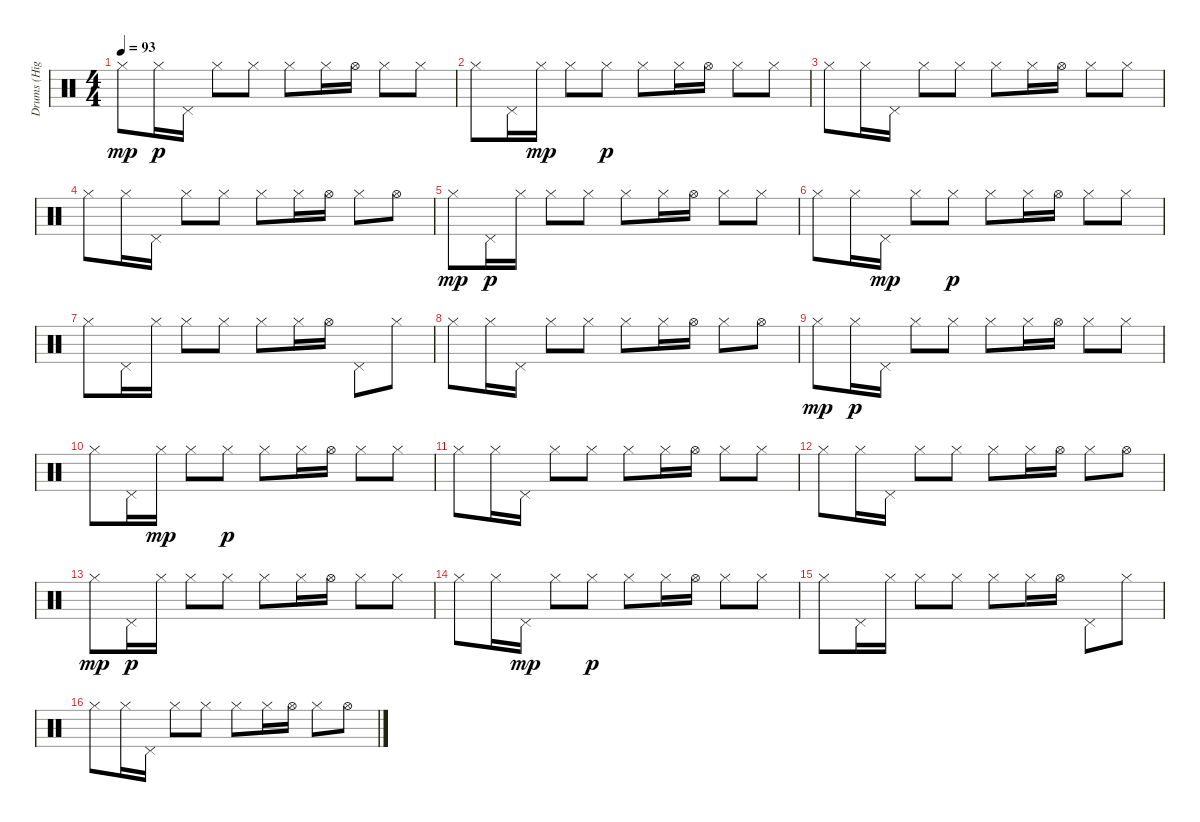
\track ("Drums (High Hat)" "Drums (Hig") {instrument percussion}
\staff {score}
\articulation defaults
\ts (4 4)
\tempo 93
\clef neutral
\ks c "Hi-Hat (closed)".8{dy mp} "Hi-Hat (closed)".16{dy p} "Pedal Hi-Hat (hit)".16 "Hi-Hat (closed)".8 "Hi-Hat (closed)".8 "Hi-Hat (closed)".8 "Hi-Hat (closed)".16 "Hi-Hat (open)".16 "Hi-Hat (closed)".8 "Hi-Hat (closed)".8
|
"Hi-Hat (closed)".8 "Pedal Hi-Hat (hit)".16 "Hi-Hat (closed)".16{dy mp} "Hi-Hat (closed)".8 "Hi-Hat (closed)".8{dy p} "Hi-Hat (closed)".8 "Hi-Hat (closed)".16 "Hi-Hat (open)".16 "Hi-Hat (closed)".8 "Hi-Hat (closed)".8 |
"Hi-Hat (closed)".8 "Hi-Hat (closed)".16 "Pedal Hi-Hat (hit)".16 "Hi-Hat (closed)".8 "Hi-Hat (closed)".8 "Hi-Hat (closed)".8 "Hi-Hat (closed)".16 "Hi-Hat (open)".16 "Hi-Hat (closed)".8 "Hi-Hat (closed)".8 |
"Hi-Hat (closed)".8 "Hi-Hat (closed)".16 "Pedal Hi-Hat (hit)".16 "Hi-Hat (closed)".8 "Hi-Hat (closed)".8 "Hi-Hat (closed)".8 "Hi-Hat (closed)".16 "Hi-Hat (open)".16 "Hi-Hat (closed)".8 "Hi-Hat (open)".8 |
"Hi-Hat (closed)".8{dy mp} "Pedal Hi-Hat (hit)".16{dy p} "Hi-Hat (closed)".16 "Hi-Hat (closed)".8 "Hi-Hat (closed)".8 "Hi-Hat (closed)".8 "Hi-Hat (closed)".16 "Hi-Hat (open)".16 "Hi-Hat (closed)".8 "Hi-Hat (closed)".8 |
"Hi-Hat (closed)".8 "Hi-Hat (closed)".16 "Pedal Hi-Hat (hit)".16{dy mp} "Hi-Hat (closed)".8 "Hi-Hat (closed)".8{dy p} "Hi-Hat (closed)".8 "Hi-Hat (closed)".16 "Hi-Hat (open)".16 "Hi-Hat (closed)".8 "Hi-Hat (closed)".8 |
"Hi-Hat (closed)".8 "Pedal Hi-Hat (hit)".16 "Hi-Hat (closed)".16 "Hi-Hat (closed)".8 "Hi-Hat (closed)".8 "Hi-Hat (closed)".8 "Hi-Hat (closed)".16 "Hi-Hat (open)".16 "Pedal Hi-Hat (hit)".8 "Hi-Hat (closed)".8 |
"Hi-Hat (closed)".8 "Hi-Hat (closed)".16 "Pedal Hi-Hat (hit)".16 "Hi-Hat (closed)".8 "Hi-Hat (closed)".8 "Hi-Hat (closed)".8 "Hi-Hat (closed)".16 "Hi-Hat (open)".16 "Hi-Hat (closed)".8 "Hi-Hat (open)".8 |
"Hi-Hat (closed)".8{dy mp} "Hi-Hat (closed)".16{dy p} "Pedal Hi-Hat (hit)".16 "Hi-Hat (closed)".8 "Hi-Hat (closed)".8 "Hi-Hat (closed)".8 "Hi-Hat (closed)".16 "Hi-Hat (open)".16 "Hi-Hat (closed)".8 "Hi-Hat (closed)".8 |
"Hi-Hat (closed)".8 "Pedal Hi-Hat (hit)".16 "Hi-Hat (closed)".16{dy mp} "Hi-Hat (closed)".8 "Hi-Hat (closed)".8{dy p} "Hi-Hat (closed)".8 "Hi-Hat (closed)".16 "Hi-Hat (open)".16 "Hi-Hat (closed)".8 "Hi-Hat (closed)".8 |
"Hi-Hat (closed)".8 "Hi-Hat (closed)".16 "Pedal Hi-Hat (hit)".16 "Hi-Hat (closed)".8 "Hi-Hat (closed)".8 "Hi-Hat (closed)".8 "Hi-Hat (closed)".16 "Hi-Hat (open)".16 "Hi-Hat (closed)".8 "Hi-Hat (closed)".8 |
"Hi-Hat (closed)".8 "Hi-Hat (closed)".16 "Pedal Hi-Hat (hit)".16 "Hi-Hat (closed)".8 "Hi-Hat (closed)".8 "Hi-Hat (closed)".8 "Hi-Hat (closed)".16 "Hi-Hat (open)".16 "Hi-Hat (closed)".8 "Hi-Hat (open)".8 |
"Hi-Hat (closed)".8{dy mp} "Pedal Hi-Hat (hit)".16{dy p} "Hi-Hat (closed)".16 "Hi-Hat (closed)".8 "Hi-Hat (closed)".8 "Hi-Hat (closed)".8 "Hi-Hat (closed)".16 "Hi-Hat (open)".16 "Hi-Hat (closed)".8 "Hi-Hat (closed)".8 |
"Hi-Hat (closed)".8 "Hi-Hat (closed)".16 "Pedal Hi-Hat (hit)".16{dy mp} "Hi-Hat (closed)".8 "Hi-Hat (closed)".8{dy p} "Hi-Hat (closed)".8 "Hi-Hat (closed)".16 "Hi-Hat (open)".16 "Hi-Hat (closed)".8 "Hi-Hat (closed)".8 |
"Hi-Hat (closed)".8 "Pedal Hi-Hat (hit)".16 "Hi-Hat (closed)".16 "Hi-Hat (closed)".8 "Hi-Hat (closed)".8 "Hi-Hat (closed)".8 "Hi-Hat (closed)".16 "Hi-Hat (open)".16 "Pedal Hi-Hat (hit)".8 "Hi-Hat (closed)".8 |
"Hi-Hat (closed)".8 "Hi-Hat (closed)".16 "Pedal Hi-Hat (hit)".16 "Hi-Hat (closed)".8 "Hi-Hat (closed)".8 "Hi-Hat (closed)".8 "Hi-Hat (closed)".16 "Hi-Hat (open)".16 "Hi-Hat (closed)".8 "Hi-Hat (open)".8
